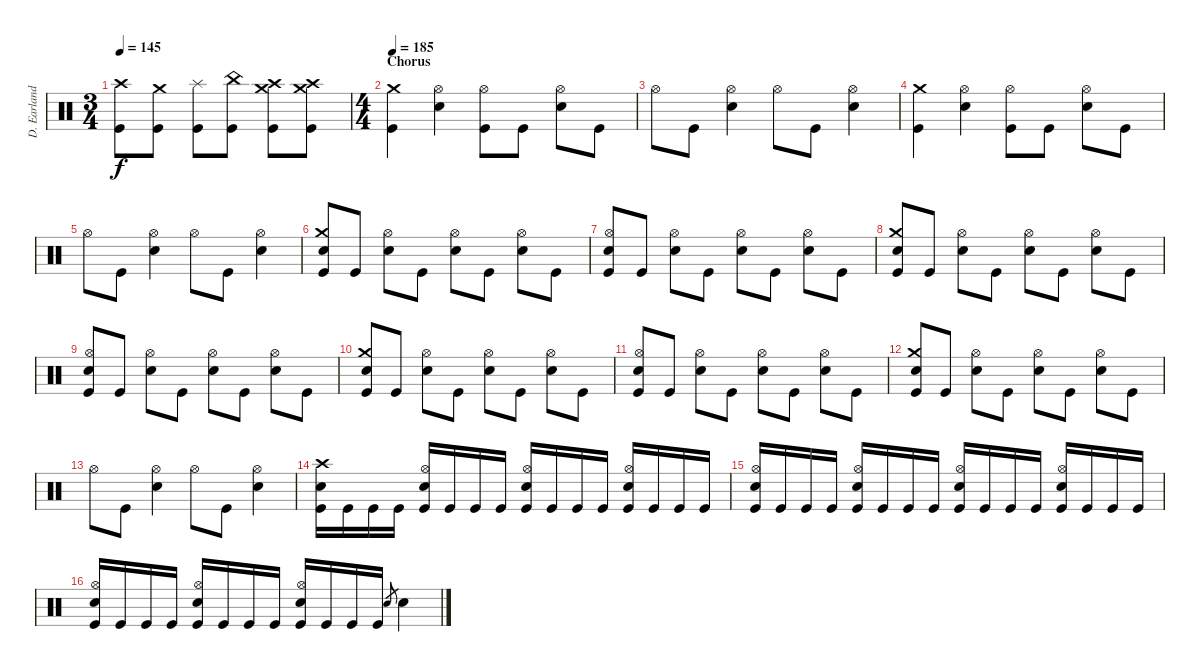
\track ("D. Earlanddson" "D. Earland") {instrument percussion}
\staff {score}
\articulation defaults
\ts (3 4)
\tempo 145
\clef neutral
\ks c
("Crash high (hit)" "Kick (hit)").8{dy f} ("Crash medium (hit)" "Kick (hit)").8 ("Splash (hit)" "Kick (hit)").8 ("China (hit)" "Kick (hit)").8 ("Crash medium (hit)" "Crash high (hit)" "Kick (hit)").8 ("Crash medium (hit)" "Crash high (hit)" "Kick (hit)").8 |
\ts (4 4)
\section ("" "Chorus")
\tempo 185
("Crash medium (hit)" "Kick (hit)").4 ("Hi-Hat (open)" "Electric Snare (hit)").4 ("Hi-Hat (open)" "Kick (hit)").8 "Kick (hit)".8 ("Hi-Hat (open)" "Electric Snare (hit)").8 "Kick (hit)".8 |
"Hi-Hat (open)".8 "Kick (hit)".8 ("Hi-Hat (open)" "Electric Snare (hit)").4 "Hi-Hat (open)".8 "Kick (hit)".8 ("Hi-Hat (open)" "Electric Snare (hit)").4 |
("Crash medium (hit)" "Kick (hit)").4 ("Hi-Hat (open)" "Electric Snare (hit)").4 ("Hi-Hat (open)" "Kick (hit)").8 "Kick (hit)".8 ("Hi-Hat (open)" "Electric Snare (hit)").8 "Kick (hit)".8 |
"Hi-Hat (open)".8 "Kick (hit)".8 ("Hi-Hat (open)" "Electric Snare (hit)").4 "Hi-Hat (open)".8 "Kick (hit)".8 ("Hi-Hat (open)" "Electric Snare (hit)").4 |
("Crash medium (hit)" "Electric Snare (hit)" "Kick (hit)").8 "Kick (hit)".8 ("Hi-Hat (open)" "Electric Snare (hit)").8 "Kick (hit)".8 ("Hi-Hat (open)" "Electric Snare (hit)").8 "Kick (hit)".8 ("Hi-Hat (open)" "Electric Snare (hit)").8 "Kick (hit)".8 |
("Hi-Hat (open)" "Electric Snare (hit)" "Kick (hit)").8 "Kick (hit)".8 ("Hi-Hat (open)" "Electric Snare (hit)").8 "Kick (hit)".8 ("Hi-Hat (open)" "Electric Snare (hit)").8 "Kick (hit)".8 ("Hi-Hat (open)" "Electric Snare (hit)").8 "Kick (hit)".8 |
("Crash medium (hit)" "Electric Snare (hit)" "Kick (hit)").8 "Kick (hit)".8 ("Hi-Hat (open)" "Electric Snare (hit)").8 "Kick (hit)".8 ("Hi-Hat (open)" "Electric Snare (hit)").8 "Kick (hit)".8 ("Hi-Hat (open)" "Electric Snare (hit)").8 "Kick (hit)".8 |
("Hi-Hat (open)" "Electric Snare (hit)" "Kick (hit)").8 "Kick (hit)".8 ("Hi-Hat (open)" "Electric Snare (hit)").8 "Kick (hit)".8 ("Hi-Hat (open)" "Electric Snare (hit)").8 "Kick (hit)".8 ("Hi-Hat (open)" "Electric Snare (hit)").8 "Kick (hit)".8 |
("Crash medium (hit)" "Electric Snare (hit)" "Kick (hit)").8 "Kick (hit)".8 ("Hi-Hat (open)" "Electric Snare (hit)").8 "Kick (hit)".8 ("Hi-Hat (open)" "Electric Snare (hit)").8 "Kick (hit)".8 ("Hi-Hat (open)" "Electric Snare (hit)").8 "Kick (hit)".8 |
("Hi-Hat (open)" "Electric Snare (hit)" "Kick (hit)").8 "Kick (hit)".8 ("Hi-Hat (open)" "Electric Snare (hit)").8 "Kick (hit)".8 ("Hi-Hat (open)" "Electric Snare (hit)").8 "Kick (hit)".8 ("Hi-Hat (open)" "Electric Snare (hit)").8 "Kick (hit)".8 |
("Crash medium (hit)" "Electric Snare (hit)" "Kick (hit)").8 "Kick (hit)".8 ("Hi-Hat (open)" "Electric Snare (hit)").8 "Kick (hit)".8 ("Hi-Hat (open)" "Electric Snare (hit)").8 "Kick (hit)".8 ("Hi-Hat (open)" "Electric Snare (hit)").8 "Kick (hit)".8 |
"Hi-Hat (open)".8 "Kick (hit)".8 ("Hi-Hat (open)" "Electric Snare (hit)").4 "Hi-Hat (open)".8 "Kick (hit)".8 ("Hi-Hat (open)" "Electric Snare (hit)").4 |
("Crash high (hit)" "Electric Snare (hit)" "Kick (hit)").16 "Kick (hit)".16 "Kick (hit)".16 "Kick (hit)".16 ("Hi-Hat (open)" "Electric Snare (hit)" "Kick (hit)").16 "Kick (hit)".16 "Kick (hit)".16 "Kick (hit)".16 ("Hi-Hat (open)" "Electric Snare (hit)" "Kick (hit)").16 "Kick (hit)".16 "Kick (hit)".16 "Kick (hit)".16 ("Hi-Hat (open)" "Electric Snare (hit)" "Kick (hit)").16 "Kick (hit)".16 "Kick (hit)".16 "Kick (hit)".16 |
("Hi-Hat (open)" "Electric Snare (hit)" "Kick (hit)").16 "Kick (hit)".16 "Kick (hit)".16 "Kick (hit)".16 ("Hi-Hat (open)" "Electric Snare (hit)" "Kick (hit)").16 "Kick (hit)".16 "Kick (hit)".16 "Kick (hit)".16 ("Hi-Hat (open)" "Electric Snare (hit)" "Kick (hit)").16 "Kick (hit)".16 "Kick (hit)".16 "Kick (hit)".16 ("Hi-Hat (open)" "Electric Snare (hit)" "Kick (hit)").16 "Kick (hit)".16 "Kick (hit)".16 "Kick (hit)".16 |
("Hi-Hat (open)" "Electric Snare (hit)" "Kick (hit)").16 "Kick (hit)".16 "Kick (hit)".16 "Kick (hit)".16 ("Hi-Hat (open)" "Electric Snare (hit)" "Kick (hit)").16 "Kick (hit)".16 "Kick (hit)".16 "Kick (hit)".16 ("Hi-Hat (open)" "Electric Snare (hit)" "Kick (hit)").16 "Kick (hit)".16 "Kick (hit)".16 "Kick (hit)".16 "Electric Snare (hit)".8{gr} "Electric Snare (hit)".4
